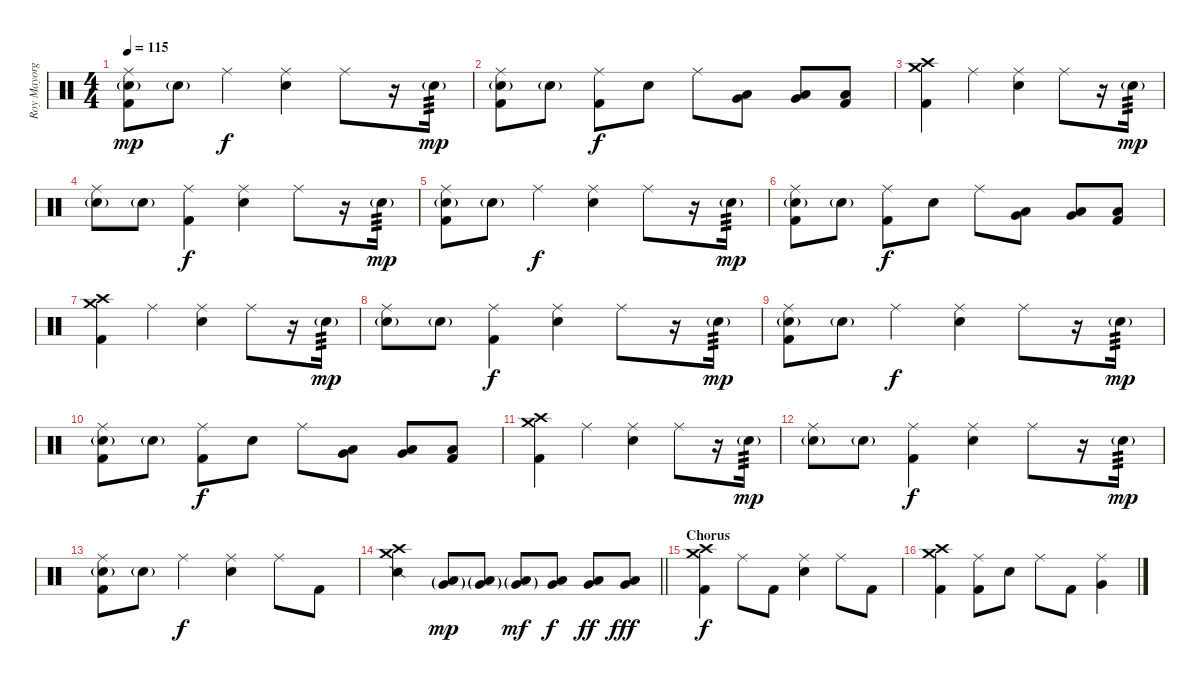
\track ("Roy Mayorga" "Roy Mayorg") {instrument percussion}
\staff {score}
\articulation defaults
\ts (4 4)
\tempo 115
\clef neutral
\ks c
("Ride (middle)" "Electric Snare (hit)"{g} "Kick (hit) 2").8{dy mp} "Electric Snare (hit)"{g}.8 "Ride (middle)".4{dy f} ("Ride (middle)" "Electric Snare (hit)").4 "Ride (middle)".8 r.16 "Electric Snare (hit)"{g}.16{tp 3 dy mp} |
("Ride (middle)" "Electric Snare (hit)"{g} "Kick (hit) 2").8 "Electric Snare (hit)"{g}.8 ("Ride (middle)" "Kick (hit) 2").8{dy f} "Electric Snare (hit)".8 "Ride (middle)".8 ("Low Tom (hit)" "Very Low Tom (hit)").8 ("Very Low Tom (hit)" "Low Floor Tom (hit)").8 ("Low Floor Tom (hit)" "Kick (hit) 2").8 |
("Crash high (hit)" "Crash medium (hit)" "Kick (hit) 2").4 "Ride (middle)".4 ("Ride (middle)" "Electric Snare (hit)").4 "Ride (middle)".8 r.16 "Electric Snare (hit)"{g}.16{tp 3 dy mp} |
("Ride (middle)" "Electric Snare (hit)"{g}).8 "Electric Snare (hit)"{g}.8 ("Ride (middle)" "Kick (hit) 2").4{dy f} ("Ride (middle)" "Electric Snare (hit)").4 "Ride (middle)".8 r.16 "Electric Snare (hit)"{g}.16{tp 3 dy mp} |
("Ride (middle)" "Electric Snare (hit)"{g} "Kick (hit) 2").8 "Electric Snare (hit)"{g}.8 "Ride (middle)".4{dy f} ("Ride (middle)" "Electric Snare (hit)").4 "Ride (middle)".8 r.16 "Electric Snare (hit)"{g}.16{tp 3 dy mp} |
("Ride (middle)" "Electric Snare (hit)"{g} "Kick (hit) 2").8 "Electric Snare (hit)"{g}.8 ("Ride (middle)" "Kick (hit) 2").8{dy f} "Electric Snare (hit)".8 "Ride (middle)".8 ("Low Tom (hit)" "Very Low Tom (hit)").8 ("Very Low Tom (hit)" "Low Floor Tom (hit)").8 ("Low Floor Tom (hit)" "Kick (hit) 2").8 |
("Crash high (hit)" "Crash medium (hit)" "Kick (hit) 2").4 "Ride (middle)".4 ("Ride (middle)" "Electric Snare (hit)").4 "Ride (middle)".8 r.16 "Electric Snare (hit)"{g}.16{tp 3 dy mp} |
("Ride (middle)" "Electric Snare (hit)"{g}).8 "Electric Snare (hit)"{g}.8 ("Ride (middle)" "Kick (hit) 2").4{dy f} ("Ride (middle)" "Electric Snare (hit)").4 "Ride (middle)".8 r.16 "Electric Snare (hit)"{g}.16{tp 3 dy mp} |
("Ride (middle)" "Electric Snare (hit)"{g} "Kick (hit) 2").8 "Electric Snare (hit)"{g}.8 "Ride (middle)".4{dy f} ("Ride (middle)" "Electric Snare (hit)").4 "Ride (middle)".8 r.16 "Electric Snare (hit)"{g}.16{tp 3 dy mp} |
("Ride (middle)" "Electric Snare (hit)"{g} "Kick (hit) 2").8 "Electric Snare (hit)"{g}.8 ("Ride (middle)" "Kick (hit) 2").8{dy f} "Electric Snare (hit)".8 "Ride (middle)".8 ("Low Tom (hit)" "Very Low Tom (hit)").8 ("Very Low Tom (hit)" "Low Floor Tom (hit)").8 ("Low Floor Tom (hit)" "Kick (hit) 2").8 |
("Crash high (hit)" "Crash medium (hit)" "Kick (hit) 2").4 "Ride (middle)".4 ("Ride (middle)" "Electric Snare (hit)").4 "Ride (middle)".8 r.16 "Electric Snare (hit)"{g}.16{tp 3 dy mp} |
("Ride (middle)" "Electric Snare (hit)"{g}).8 "Electric Snare (hit)"{g}.8 ("Ride (middle)" "Kick (hit) 2").4{dy f} ("Ride (middle)" "Electric Snare (hit)").4 "Ride (middle)".8 r.16 "Electric Snare (hit)"{g}.16{tp 3 dy mp} |
("Ride (middle)" "Electric Snare (hit)"{g} "Kick (hit) 2").8 "Electric Snare (hit)"{g}.8 "Ride (middle)".4{dy f} ("Ride (middle)" "Electric Snare (hit)").4 "Ride (middle)".8 "Kick (hit) 2".8 |
\barLineRight lightlight
("Crash high (hit)" "Crash medium (hit)" "Snare (side stick) 2").4 ("Very Low Tom (hit)"{g} "Low Floor Tom (hit)"{g}).8{dy mp} ("Very Low Tom (hit)"{g} "Low Floor Tom (hit)"{g}).8 ("Very Low Tom (hit)"{g} "Low Floor Tom (hit)"{g}).8{dy mf} ("Very Low Tom (hit)" "Low Floor Tom (hit)").8{dy f} ("Very Low Tom (hit)" "Low Floor Tom (hit)").8{dy ff} ("Very Low Tom (hit)" "Low Floor Tom (hit)").8{dy fff} |
\section ("" "Chorus")
("Crash high (hit)" "Crash medium (hit)" "Kick (hit) 2").4{dy f} "Ride (middle)".8 "Kick (hit) 2".8 ("Ride (middle)" "Electric Snare (hit)").4 "Ride (middle)".8 "Kick (hit) 2".8 |
("Crash high (hit)" "Crash medium (hit)" "Kick (hit) 2").4 ("Ride (middle)" "Kick (hit) 2").8 "Electric Snare (hit)".8 "Ride (middle)".8 "Kick (hit) 2".8 ("Ride (middle)" "Very Low Tom (hit)").4
